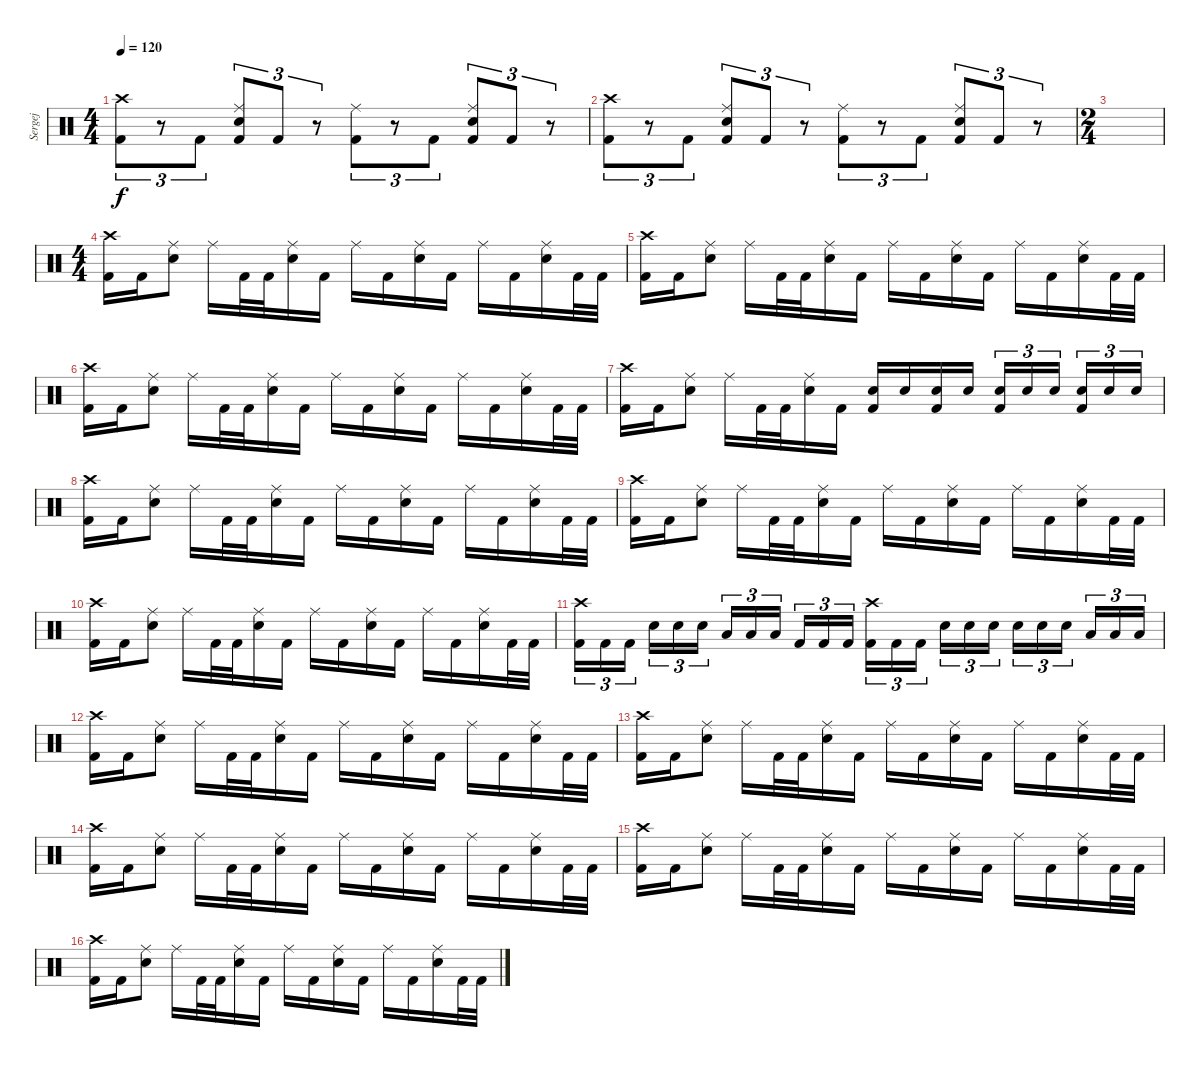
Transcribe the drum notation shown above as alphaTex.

\track ("Sergej" "Sergej") {instrument percussion}
\staff {score}
\articulation defaults
\ts (4 4)
\tempo 120
\clef neutral
\ks c
("Crash high (hit)" "Kick (hit) 2").8{tu (3 2) dy f} r.8{tu (3 2)} "Kick (hit) 2".8{tu (3 2)} ("Ride (middle)" "Snare (hit) 2" "Kick (hit) 2").8{tu (3 2)} "Kick (hit) 2".8{tu (3 2)} r.8{tu (3 2)} ("Ride (middle)" "Kick (hit) 2").8{tu (3 2)} r.8{tu (3 2)} "Kick (hit) 2".8{tu (3 2)} ("Ride (middle)" "Snare (hit) 2" "Kick (hit) 2").8{tu (3 2)} "Kick (hit) 2".8{tu (3 2)} r.8{tu (3 2)} |
("Crash high (hit)" "Kick (hit) 2").8{tu (3 2)} r.8{tu (3 2)} "Kick (hit) 2".8{tu (3 2)} ("Ride (middle)" "Snare (hit) 2" "Kick (hit) 2").8{tu (3 2)} "Kick (hit) 2".8{tu (3 2)} r.8{tu (3 2)} ("Ride (middle)" "Kick (hit) 2").8{tu (3 2)} r.8{tu (3 2)} "Kick (hit) 2".8{tu (3 2)} ("Ride (middle)" "Snare (hit) 2" "Kick (hit) 2").8{tu (3 2)} "Kick (hit) 2".8{tu (3 2)} r.8{tu (3 2)} |
\ts (2 4)
|
\ts (4 4)
("Crash high (hit)" "Kick (hit) 2").16 "Kick (hit) 2".16 ("Ride (middle)" "Snare (hit) 2").8 "Ride (middle)".16 "Kick (hit) 2".32 "Kick (hit) 2".32 ("Ride (middle)" "Snare (hit) 2").16 "Kick (hit) 2".16 "Ride (middle)".16 "Kick (hit) 2".16 ("Ride (middle)" "Snare (hit) 2").16 "Kick (hit) 2".16 "Ride (middle)".16 "Kick (hit) 2".16 ("Ride (middle)" "Snare (hit) 2").16 "Kick (hit) 2".32 "Kick (hit) 2".32 |
("Crash high (hit)" "Kick (hit) 2").16 "Kick (hit) 2".16 ("Ride (middle)" "Snare (hit) 2").8 "Ride (middle)".16 "Kick (hit) 2".32 "Kick (hit) 2".32 ("Ride (middle)" "Snare (hit) 2").16 "Kick (hit) 2".16 "Ride (middle)".16 "Kick (hit) 2".16 ("Ride (middle)" "Snare (hit) 2").16 "Kick (hit) 2".16 "Ride (middle)".16 "Kick (hit) 2".16 ("Ride (middle)" "Snare (hit) 2").16 "Kick (hit) 2".32 "Kick (hit) 2".32 |
("Crash high (hit)" "Kick (hit) 2").16 "Kick (hit) 2".16 ("Ride (middle)" "Snare (hit) 2").8 "Ride (middle)".16 "Kick (hit) 2".32 "Kick (hit) 2".32 ("Ride (middle)" "Snare (hit) 2").16 "Kick (hit) 2".16 "Ride (middle)".16 "Kick (hit) 2".16 ("Ride (middle)" "Snare (hit) 2").16 "Kick (hit) 2".16 "Ride (middle)".16 "Kick (hit) 2".16 ("Ride (middle)" "Snare (hit) 2").16 "Kick (hit) 2".32 "Kick (hit) 2".32 |
("Crash high (hit)" "Kick (hit) 2").16 "Kick (hit) 2".16 ("Ride (middle)" "Snare (hit) 2").8 "Ride (middle)".16 "Kick (hit) 2".32 "Kick (hit) 2".32 ("Ride (middle)" "Snare (hit) 2").16 "Kick (hit) 2".16 ("Kick (hit) 2" "Snare (hit) 2").16 "Snare (hit) 2".16 ("Kick (hit) 2" "Snare (hit) 2").16 "Snare (hit) 2".16 ("Kick (hit) 2" "Snare (hit) 2").16{tu (3 2)} "Snare (hit) 2".16{tu (3 2)} "Snare (hit) 2".16{tu (3 2)} ("Kick (hit) 2" "Snare (hit) 2").16{tu (3 2)} "Snare (hit) 2".16{tu (3 2)} "Snare (hit) 2".16{tu (3 2)} |
("Crash high (hit)" "Kick (hit) 2").16 "Kick (hit) 2".16 ("Ride (middle)" "Snare (hit) 2").8 "Ride (middle)".16 "Kick (hit) 2".32 "Kick (hit) 2".32 ("Ride (middle)" "Snare (hit) 2").16 "Kick (hit) 2".16 "Ride (middle)".16 "Kick (hit) 2".16 ("Ride (middle)" "Snare (hit) 2").16 "Kick (hit) 2".16 "Ride (middle)".16 "Kick (hit) 2".16 ("Ride (middle)" "Snare (hit) 2").16 "Kick (hit) 2".32 "Kick (hit) 2".32 |
("Crash high (hit)" "Kick (hit) 2").16 "Kick (hit) 2".16 ("Ride (middle)" "Snare (hit) 2").8 "Ride (middle)".16 "Kick (hit) 2".32 "Kick (hit) 2".32 ("Ride (middle)" "Snare (hit) 2").16 "Kick (hit) 2".16 "Ride (middle)".16 "Kick (hit) 2".16 ("Ride (middle)" "Snare (hit) 2").16 "Kick (hit) 2".16 "Ride (middle)".16 "Kick (hit) 2".16 ("Ride (middle)" "Snare (hit) 2").16 "Kick (hit) 2".32 "Kick (hit) 2".32 |
("Crash high (hit)" "Kick (hit) 2").16 "Kick (hit) 2".16 ("Ride (middle)" "Snare (hit) 2").8 "Ride (middle)".16 "Kick (hit) 2".32 "Kick (hit) 2".32 ("Ride (middle)" "Snare (hit) 2").16 "Kick (hit) 2".16 "Ride (middle)".16 "Kick (hit) 2".16 ("Ride (middle)" "Snare (hit) 2").16 "Kick (hit) 2".16 "Ride (middle)".16 "Kick (hit) 2".16 ("Ride (middle)" "Snare (hit) 2").16 "Kick (hit) 2".32 "Kick (hit) 2".32 |
("Crash high (hit)" "Kick (hit) 2").16{tu (3 2)} "Kick (hit) 2".16{tu (3 2)} "Kick (hit) 2".16{tu (3 2)} "Snare (hit) 2".16{tu (3 2)} "Snare (hit) 2".16{tu (3 2)} "Snare (hit) 2".16{tu (3 2)} "Low Tom (hit)".16{tu (3 2)} "Low Tom (hit)".16{tu (3 2)} "Low Tom (hit)".16{tu (3 2)} "Kick (hit) 2".16{tu (3 2)} "Kick (hit) 2".16{tu (3 2)} "Kick (hit) 2".16{tu (3 2)} ("Crash high (hit)" "Kick (hit) 2").16{tu (3 2)} "Kick (hit) 2".16{tu (3 2)} "Kick (hit) 2".16{tu (3 2)} "Snare (hit) 2".16{tu (3 2)} "Snare (hit) 2".16{tu (3 2)} "Snare (hit) 2".16{tu (3 2)} "Snare (hit) 2".16{tu (3 2)} "Snare (hit) 2".16{tu (3 2)} "Snare (hit) 2".16{tu (3 2)} "Low Tom (hit)".16{tu (3 2)} "Low Tom (hit)".16{tu (3 2)} "Low Tom (hit)".16{tu (3 2)} |
("Crash high (hit)" "Kick (hit) 2").16 "Kick (hit) 2".16 ("Ride (middle)" "Snare (hit) 2").8 "Ride (middle)".16 "Kick (hit) 2".32 "Kick (hit) 2".32 ("Ride (middle)" "Snare (hit) 2").16 "Kick (hit) 2".16 "Ride (middle)".16 "Kick (hit) 2".16 ("Ride (middle)" "Snare (hit) 2").16 "Kick (hit) 2".16 "Ride (middle)".16 "Kick (hit) 2".16 ("Ride (middle)" "Snare (hit) 2").16 "Kick (hit) 2".32 "Kick (hit) 2".32 |
("Crash high (hit)" "Kick (hit) 2").16 "Kick (hit) 2".16 ("Ride (middle)" "Snare (hit) 2").8 "Ride (middle)".16 "Kick (hit) 2".32 "Kick (hit) 2".32 ("Ride (middle)" "Snare (hit) 2").16 "Kick (hit) 2".16 "Ride (middle)".16 "Kick (hit) 2".16 ("Ride (middle)" "Snare (hit) 2").16 "Kick (hit) 2".16 "Ride (middle)".16 "Kick (hit) 2".16 ("Ride (middle)" "Snare (hit) 2").16 "Kick (hit) 2".32 "Kick (hit) 2".32 |
("Crash high (hit)" "Kick (hit) 2").16 "Kick (hit) 2".16 ("Ride (middle)" "Snare (hit) 2").8 "Ride (middle)".16 "Kick (hit) 2".32 "Kick (hit) 2".32 ("Ride (middle)" "Snare (hit) 2").16 "Kick (hit) 2".16 "Ride (middle)".16 "Kick (hit) 2".16 ("Ride (middle)" "Snare (hit) 2").16 "Kick (hit) 2".16 "Ride (middle)".16 "Kick (hit) 2".16 ("Ride (middle)" "Snare (hit) 2").16 "Kick (hit) 2".32 "Kick (hit) 2".32 |
("Crash high (hit)" "Kick (hit) 2").16 "Kick (hit) 2".16 ("Ride (middle)" "Snare (hit) 2").8 "Ride (middle)".16 "Kick (hit) 2".32 "Kick (hit) 2".32 ("Ride (middle)" "Snare (hit) 2").16 "Kick (hit) 2".16 "Ride (middle)".16 "Kick (hit) 2".16 ("Ride (middle)" "Snare (hit) 2").16 "Kick (hit) 2".16 "Ride (middle)".16 "Kick (hit) 2".16 ("Ride (middle)" "Snare (hit) 2").16 "Kick (hit) 2".32 "Kick (hit) 2".32 |
("Crash high (hit)" "Kick (hit) 2").16 "Kick (hit) 2".16 ("Ride (middle)" "Snare (hit) 2").8 "Ride (middle)".16 "Kick (hit) 2".32 "Kick (hit) 2".32 ("Ride (middle)" "Snare (hit) 2").16 "Kick (hit) 2".16 "Ride (middle)".16 "Kick (hit) 2".16 ("Ride (middle)" "Snare (hit) 2").16 "Kick (hit) 2".16 "Ride (middle)".16 "Kick (hit) 2".16 ("Ride (middle)" "Snare (hit) 2").16 "Kick (hit) 2".32 "Kick (hit) 2".32
